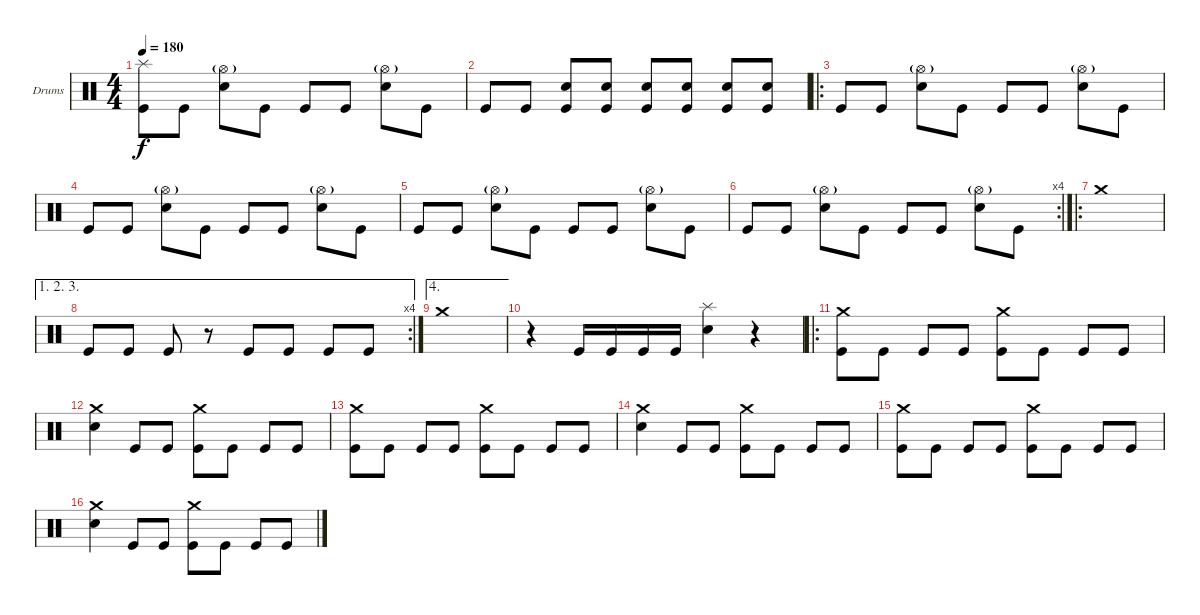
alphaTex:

\bracketExtendMode groupsimilarinstruments
\firstSystemTrackNameOrientation horizontal
\otherSystemsTrackNameOrientation horizontal
\track ("Drumkit" "Drums") {instrument percussion}
\staff {score}
\articulation defaults
\ts (4 4)
\tempo 180
\clef neutral
\ks c
("Splash (hit)" "Kick (hit)").8{dy f} "Kick (hit)".8 ("Hi-Hat (open)"{g} "Snare (hit) 2").8 "Kick (hit)".8 "Kick (hit)".8 "Kick (hit)".8 ("Hi-Hat (open)"{g} "Snare (hit) 2").8 "Kick (hit)".8 |
"Kick (hit)".8 "Kick (hit)".8 ("Snare (hit) 2" "Kick (hit)").8 ("Snare (hit) 2" "Kick (hit)").8 ("Snare (hit) 2" "Kick (hit)").8 ("Snare (hit) 2" "Kick (hit)").8 ("Snare (hit) 2" "Kick (hit)").8 ("Snare (hit) 2" "Kick (hit)").8 |
\ro "Kick (hit)".8 "Kick (hit)".8
("Hi-Hat (open)"{g} "Snare (hit) 2").8 "Kick (hit)".8 "Kick (hit)".8 "Kick (hit)".8 ("Hi-Hat (open)"{g} "Snare (hit) 2").8 "Kick (hit)".8 |
"Kick (hit)".8 "Kick (hit)".8 ("Hi-Hat (open)"{g} "Snare (hit) 2").8 "Kick (hit)".8 "Kick (hit)".8 "Kick (hit)".8 ("Hi-Hat (open)"{g} "Snare (hit) 2").8 "Kick (hit)".8 |
"Kick (hit)".8 "Kick (hit)".8 ("Hi-Hat (open)"{g} "Snare (hit) 2").8 "Kick (hit)".8 "Kick (hit)".8 "Kick (hit)".8 ("Hi-Hat (open)"{g} "Snare (hit) 2").8 "Kick (hit)".8 |
\rc 4 "Kick (hit)".8 "Kick (hit)".8
("Hi-Hat (open)"{g} "Snare (hit) 2").8 "Kick (hit)".8 "Kick (hit)".8 "Kick (hit)".8 ("Hi-Hat (open)"{g} "Snare (hit) 2").8 "Kick (hit)".8 |
\ro "Crash medium (hit)".1
|
\ae (1 2 3)
\rc 4 "Kick (hit)".8 "Kick (hit)".8 "Kick (hit)".8
r.8 "Kick (hit)".8 "Kick (hit)".8 "Kick (hit)".8 "Kick (hit)".8 |
\ae 4 "Crash medium (hit)".1
|
r.4 "Kick (hit)".16 "Kick (hit)".16 "Kick (hit)".16 "Kick (hit)".16 ("Splash (hit)" "Snare (hit) 2").4 r.4 |
\ro
("Crash medium (hit)" "Kick (hit)").8 "Kick (hit)".8 "Kick (hit)".8 "Kick (hit)".8 ("Crash medium (hit)" "Kick (hit)").8 "Kick (hit)".8 "Kick (hit)".8 "Kick (hit)".8 |
("Crash medium (hit)" "Snare (hit) 2").4 "Kick (hit)".8 "Kick (hit)".8 ("Crash medium (hit)" "Kick (hit)").8 "Kick (hit)".8 "Kick (hit)".8 "Kick (hit)".8 |
("Crash medium (hit)" "Kick (hit)").8 "Kick (hit)".8 "Kick (hit)".8 "Kick (hit)".8 ("Crash medium (hit)" "Kick (hit)").8 "Kick (hit)".8 "Kick (hit)".8 "Kick (hit)".8 |
("Crash medium (hit)" "Snare (hit) 2").4 "Kick (hit)".8 "Kick (hit)".8 ("Crash medium (hit)" "Kick (hit)").8 "Kick (hit)".8 "Kick (hit)".8 "Kick (hit)".8 |
("Crash medium (hit)" "Kick (hit)").8 "Kick (hit)".8 "Kick (hit)".8 "Kick (hit)".8 ("Crash medium (hit)" "Kick (hit)").8 "Kick (hit)".8 "Kick (hit)".8 "Kick (hit)".8 |
("Crash medium (hit)" "Snare (hit) 2").4 "Kick (hit)".8 "Kick (hit)".8 ("Crash medium (hit)" "Kick (hit)").8 "Kick (hit)".8 "Kick (hit)".8 "Kick (hit)".8
